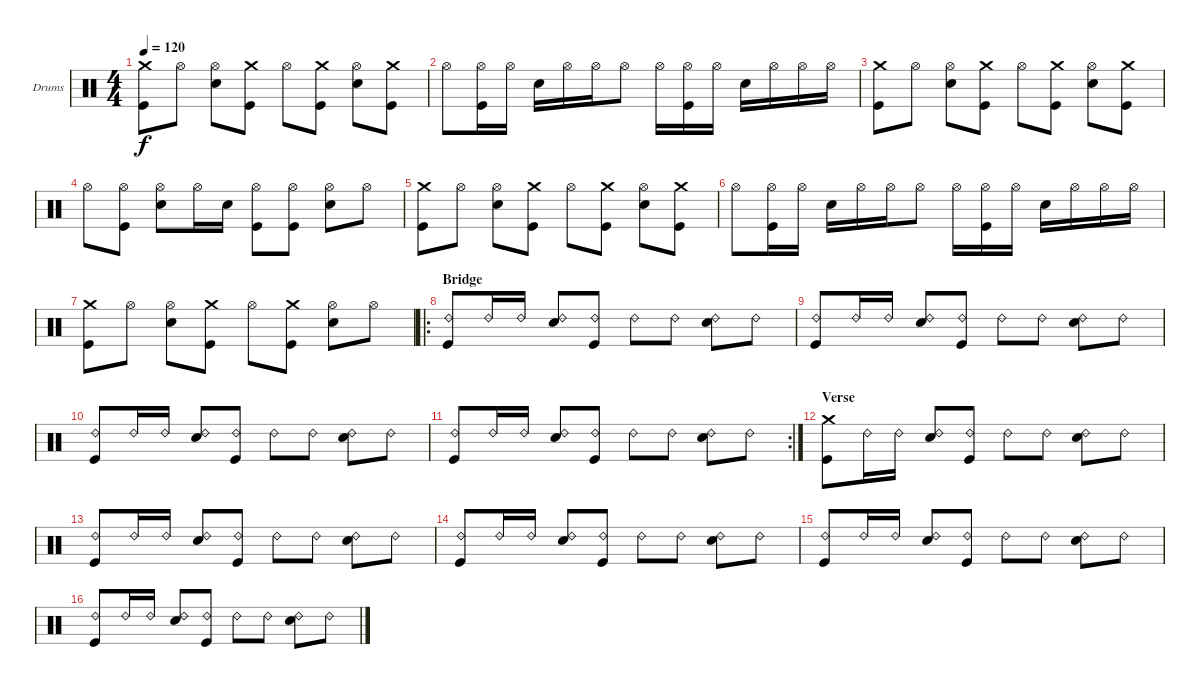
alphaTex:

\bracketExtendMode groupsimilarinstruments
\firstSystemTrackNameOrientation horizontal
\otherSystemsTrackNameOrientation horizontal
\track ("Fabrizio" "Drums") {instrument percussion}
\staff {score}
\articulation defaults
\ts (4 4)
\tempo 120
\clef neutral
\ks c
("Crash medium (hit)" "Kick (hit)").8{dy f} "Hi-Hat (open)".8 ("Hi-Hat (open)" "Snare (hit) 2").8 ("Crash medium (hit)" "Kick (hit)").8 "Hi-Hat (open)".8 ("Crash medium (hit)" "Kick (hit)").8 ("Hi-Hat (open)" "Snare (hit) 2").8 ("Crash medium (hit)" "Kick (hit)").8 |
"Hi-Hat (open)".8 ("Hi-Hat (open)" "Kick (hit)").16 "Hi-Hat (open)".16 "Snare (hit) 2".16 "Hi-Hat (open)".16 "Hi-Hat (open)".16 "Hi-Hat (open)".8 "Hi-Hat (open)".16 ("Hi-Hat (open)" "Kick (hit)").16 "Hi-Hat (open)".16 "Snare (hit) 2".16 "Hi-Hat (open)".16 "Hi-Hat (open)".16 "Hi-Hat (open)".16 |
("Crash medium (hit)" "Kick (hit)").8 "Hi-Hat (open)".8 ("Hi-Hat (open)" "Snare (hit) 2").8 ("Crash medium (hit)" "Kick (hit)").8 "Hi-Hat (open)".8 ("Crash medium (hit)" "Kick (hit)").8 ("Hi-Hat (open)" "Snare (hit) 2").8 ("Crash medium (hit)" "Kick (hit)").8 |
"Hi-Hat (open)".8 ("Hi-Hat (open)" "Kick (hit)").8 ("Hi-Hat (open)" "Snare (hit) 2").8 "Hi-Hat (open)".16 "Snare (hit) 2".16 ("Hi-Hat (open)" "Kick (hit)").8 ("Hi-Hat (open)" "Kick (hit)").8 ("Hi-Hat (open)" "Snare (hit) 2").8 "Hi-Hat (open)".8 |
("Crash medium (hit)" "Kick (hit)").8 "Hi-Hat (open)".8 ("Hi-Hat (open)" "Snare (hit) 2").8 ("Crash medium (hit)" "Kick (hit)").8 "Hi-Hat (open)".8 ("Crash medium (hit)" "Kick (hit)").8 ("Hi-Hat (open)" "Snare (hit) 2").8 ("Crash medium (hit)" "Kick (hit)").8 |
"Hi-Hat (open)".8 ("Hi-Hat (open)" "Kick (hit)").16 "Hi-Hat (open)".16 "Snare (hit) 2".16 "Hi-Hat (open)".16 "Hi-Hat (open)".16 "Hi-Hat (open)".8 "Hi-Hat (open)".16 ("Hi-Hat (open)" "Kick (hit)").16 "Hi-Hat (open)".16 "Snare (hit) 2".16 "Hi-Hat (open)".16 "Hi-Hat (open)".16 "Hi-Hat (open)".16 |
("Crash medium (hit)" "Kick (hit)").8 "Hi-Hat (open)".8 ("Hi-Hat (open)" "Snare (hit) 2").8 ("Crash medium (hit)" "Kick (hit)").8 "Hi-Hat (open)".8 ("Crash medium (hit)" "Kick (hit)").8 ("Hi-Hat (open)" "Snare (hit) 2").8 "Hi-Hat (open)".8 |
\ro
\section ("" "Bridge")
("Ride (bell) 2" "Kick (hit)").8 "Ride (bell) 2".16 "Ride (bell) 2".16 ("Ride (bell) 2" "Snare (hit) 2").8 ("Ride (bell) 2" "Kick (hit)").8 "Ride (bell) 2".8 "Ride (bell) 2".8 ("Ride (bell) 2" "Snare (hit) 2").8 "Ride (bell) 2".8 |
("Ride (bell) 2" "Kick (hit)").8 "Ride (bell) 2".16 "Ride (bell) 2".16 ("Ride (bell) 2" "Snare (hit) 2").8 ("Ride (bell) 2" "Kick (hit)").8 "Ride (bell) 2".8 "Ride (bell) 2".8 ("Ride (bell) 2" "Snare (hit) 2").8 "Ride (bell) 2".8 |
("Ride (bell) 2" "Kick (hit)").8 "Ride (bell) 2".16 "Ride (bell) 2".16 ("Ride (bell) 2" "Snare (hit) 2").8 ("Ride (bell) 2" "Kick (hit)").8 "Ride (bell) 2".8 "Ride (bell) 2".8 ("Ride (bell) 2" "Snare (hit) 2").8 "Ride (bell) 2".8 |
\rc 2
("Ride (bell) 2" "Kick (hit)").8 "Ride (bell) 2".16 "Ride (bell) 2".16 ("Ride (bell) 2" "Snare (hit) 2").8 ("Ride (bell) 2" "Kick (hit)").8 "Ride (bell) 2".8 "Ride (bell) 2".8 ("Ride (bell) 2" "Snare (hit) 2").8 "Ride (bell) 2".8 |
\section ("" "Verse")
("Kick (hit)" "Crash medium (hit)").8 "Ride (bell) 2".16 "Ride (bell) 2".16 ("Ride (bell) 2" "Snare (hit) 2").8 ("Ride (bell) 2" "Kick (hit)").8 "Ride (bell) 2".8 "Ride (bell) 2".8 ("Ride (bell) 2" "Snare (hit) 2").8 "Ride (bell) 2".8 |
("Ride (bell) 2" "Kick (hit)").8 "Ride (bell) 2".16 "Ride (bell) 2".16 ("Ride (bell) 2" "Snare (hit) 2").8 ("Ride (bell) 2" "Kick (hit)").8 "Ride (bell) 2".8 "Ride (bell) 2".8 ("Ride (bell) 2" "Snare (hit) 2").8 "Ride (bell) 2".8 |
("Ride (bell) 2" "Kick (hit)").8 "Ride (bell) 2".16 "Ride (bell) 2".16 ("Ride (bell) 2" "Snare (hit) 2").8 ("Ride (bell) 2" "Kick (hit)").8 "Ride (bell) 2".8 "Ride (bell) 2".8 ("Ride (bell) 2" "Snare (hit) 2").8 "Ride (bell) 2".8 |
("Ride (bell) 2" "Kick (hit)").8 "Ride (bell) 2".16 "Ride (bell) 2".16 ("Ride (bell) 2" "Snare (hit) 2").8 ("Ride (bell) 2" "Kick (hit)").8 "Ride (bell) 2".8 "Ride (bell) 2".8 ("Ride (bell) 2" "Snare (hit) 2").8 "Ride (bell) 2".8 |
("Ride (bell) 2" "Kick (hit)").8 "Ride (bell) 2".16 "Ride (bell) 2".16 ("Ride (bell) 2" "Snare (hit) 2").8 ("Ride (bell) 2" "Kick (hit)").8 "Ride (bell) 2".8 "Ride (bell) 2".8 ("Ride (bell) 2" "Snare (hit) 2").8 "Ride (bell) 2".8
